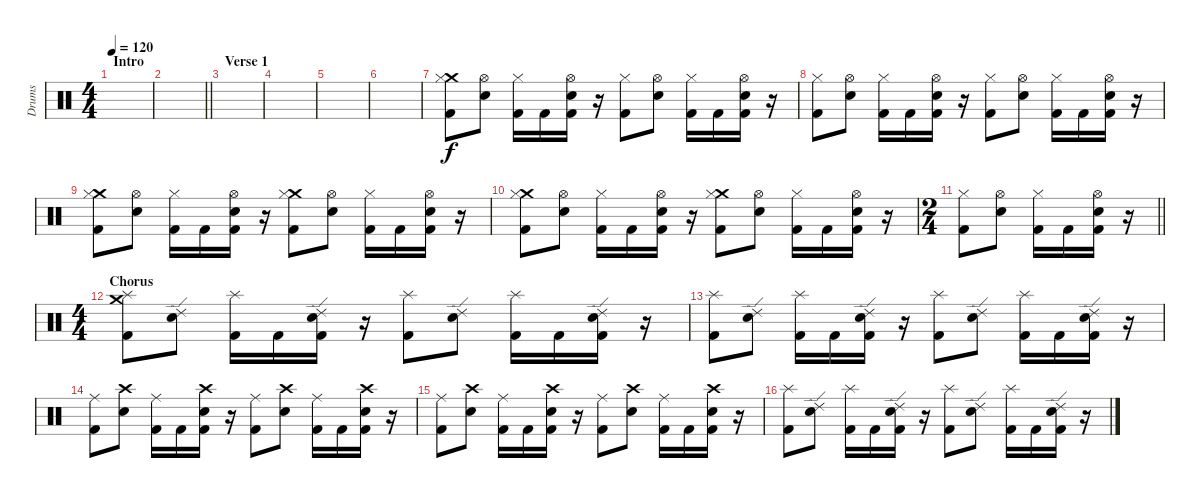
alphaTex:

\track ("Drums" "Drums") {instrument percussion}
\staff {score}
\articulation defaults
\ts (4 4)
\section ("" "Intro")
\tempo 120
\clef neutral
\ks c
|
\barLineRight lightlight
|
\section ("" "Verse 1")
|
|
|
|
("Kick (hit) 2" "Crash medium (hit)" "Hi-Hat (closed)").8 ("Snare (hit) 2" "Hi-Hat (open)").8 ("Kick (hit) 2" "Hi-Hat (closed)").16 "Kick (hit) 2".16 ("Kick (hit) 2" "Snare (hit) 2" "Hi-Hat (open)").16 r.16 ("Kick (hit) 2" "Hi-Hat (closed)").8 ("Snare (hit) 2" "Hi-Hat (open)").8 ("Kick (hit) 2" "Hi-Hat (closed)").16 "Kick (hit) 2".16 ("Kick (hit) 2" "Snare (hit) 2" "Hi-Hat (open)").16 r.16 |
("Kick (hit) 2" "Hi-Hat (closed)").8 ("Snare (hit) 2" "Hi-Hat (open)").8 ("Kick (hit) 2" "Hi-Hat (closed)").16 "Kick (hit) 2".16 ("Kick (hit) 2" "Snare (hit) 2" "Hi-Hat (open)").16 r.16 ("Kick (hit) 2" "Hi-Hat (closed)").8 ("Snare (hit) 2" "Hi-Hat (open)").8 ("Kick (hit) 2" "Hi-Hat (closed)").16 "Kick (hit) 2".16 ("Kick (hit) 2" "Snare (hit) 2" "Hi-Hat (open)").16 r.16 |
("Kick (hit) 2" "Crash medium (hit)" "Hi-Hat (closed)").8 ("Snare (hit) 2" "Hi-Hat (open)").8 ("Kick (hit) 2" "Hi-Hat (closed)").16 "Kick (hit) 2".16 ("Kick (hit) 2" "Snare (hit) 2" "Hi-Hat (open)").16 r.16 ("Kick (hit) 2" "Crash medium (hit)" "Hi-Hat (closed)").8 ("Snare (hit) 2" "Hi-Hat (open)").8 ("Kick (hit) 2" "Hi-Hat (closed)").16 "Kick (hit) 2".16 ("Kick (hit) 2" "Snare (hit) 2" "Hi-Hat (open)").16 r.16 |
("Kick (hit) 2" "Crash medium (hit)" "Hi-Hat (closed)").8 ("Snare (hit) 2" "Hi-Hat (open)").8 ("Kick (hit) 2" "Hi-Hat (closed)").16 "Kick (hit) 2".16 ("Kick (hit) 2" "Snare (hit) 2" "Hi-Hat (open)").16 r.16 ("Kick (hit) 2" "Crash medium (hit)" "Hi-Hat (closed)").8 ("Snare (hit) 2" "Hi-Hat (open)").8 ("Kick (hit) 2" "Hi-Hat (closed)").16 "Kick (hit) 2".16 ("Kick (hit) 2" "Snare (hit) 2" "Hi-Hat (open)").16 r.16 |
\ts (2 4)
\barLineRight lightlight
("Kick (hit) 2" "Hi-Hat (closed)").8 ("Snare (hit) 2" "Hi-Hat (open)").8 ("Kick (hit) 2" "Hi-Hat (closed)").16 "Kick (hit) 2".16 ("Kick (hit) 2" "Snare (hit) 2" "Hi-Hat (open)").16 r.16 |
\ts (4 4)
\section ("" "Chorus")
("Kick (hit) 2" "Crash medium (hit)" "Splash (hit)").8 ("Snare (hit) 2" "Ride (edge) 2").8 ("Kick (hit) 2" "Splash (hit)").16 "Kick (hit) 2".16 ("Kick (hit) 2" "Snare (hit) 2" "Ride (edge) 2").16 r.16 ("Kick (hit) 2" "Splash (hit)").8 ("Snare (hit) 2" "Ride (edge) 2").8 ("Kick (hit) 2" "Splash (hit)").16 "Kick (hit) 2".16 ("Kick (hit) 2" "Snare (hit) 2" "Ride (edge) 2").16 r.16 |
("Kick (hit) 2" "Splash (hit)").8 ("Snare (hit) 2" "Ride (edge) 2").8 ("Kick (hit) 2" "Splash (hit)").16 "Kick (hit) 2".16 ("Kick (hit) 2" "Snare (hit) 2" "Ride (edge) 2").16 r.16 ("Kick (hit) 2" "Splash (hit)").8 ("Snare (hit) 2" "Ride (edge) 2").8 ("Kick (hit) 2" "Splash (hit)").16 "Kick (hit) 2".16 ("Kick (hit) 2" "Snare (hit) 2" "Ride (edge) 2").16 r.16 |
("Kick (hit) 2" "Ride (middle)").8 ("Snare (hit) 2" "Crash high (hit)").8 ("Kick (hit) 2" "Ride (middle)").16 "Kick (hit) 2".16 ("Kick (hit) 2" "Snare (hit) 2" "Crash high (hit)").16 r.16 ("Kick (hit) 2" "Ride (middle)").8 ("Snare (hit) 2" "Crash high (hit)").8 ("Kick (hit) 2" "Ride (middle)").16 "Kick (hit) 2".16 ("Kick (hit) 2" "Snare (hit) 2" "Crash high (hit)").16 r.16 |
("Kick (hit) 2" "Ride (middle)").8 ("Snare (hit) 2" "Crash high (hit)").8 ("Kick (hit) 2" "Ride (middle)").16 "Kick (hit) 2".16 ("Kick (hit) 2" "Snare (hit) 2" "Crash high (hit)").16 r.16 ("Kick (hit) 2" "Ride (middle)").8 ("Snare (hit) 2" "Crash high (hit)").8 ("Kick (hit) 2" "Ride (middle)").16 "Kick (hit) 2".16 ("Kick (hit) 2" "Snare (hit) 2" "Crash high (hit)").16 r.16 |
("Kick (hit) 2" "Splash (hit)").8 ("Snare (hit) 2" "Ride (edge) 2").8 ("Kick (hit) 2" "Splash (hit)").16 "Kick (hit) 2".16 ("Kick (hit) 2" "Snare (hit) 2" "Ride (edge) 2").16 r.16 ("Kick (hit) 2" "Splash (hit)").8 ("Snare (hit) 2" "Ride (edge) 2").8 ("Kick (hit) 2" "Splash (hit)").16 "Kick (hit) 2".16 ("Kick (hit) 2" "Snare (hit) 2" "Ride (edge) 2").16 r.16
